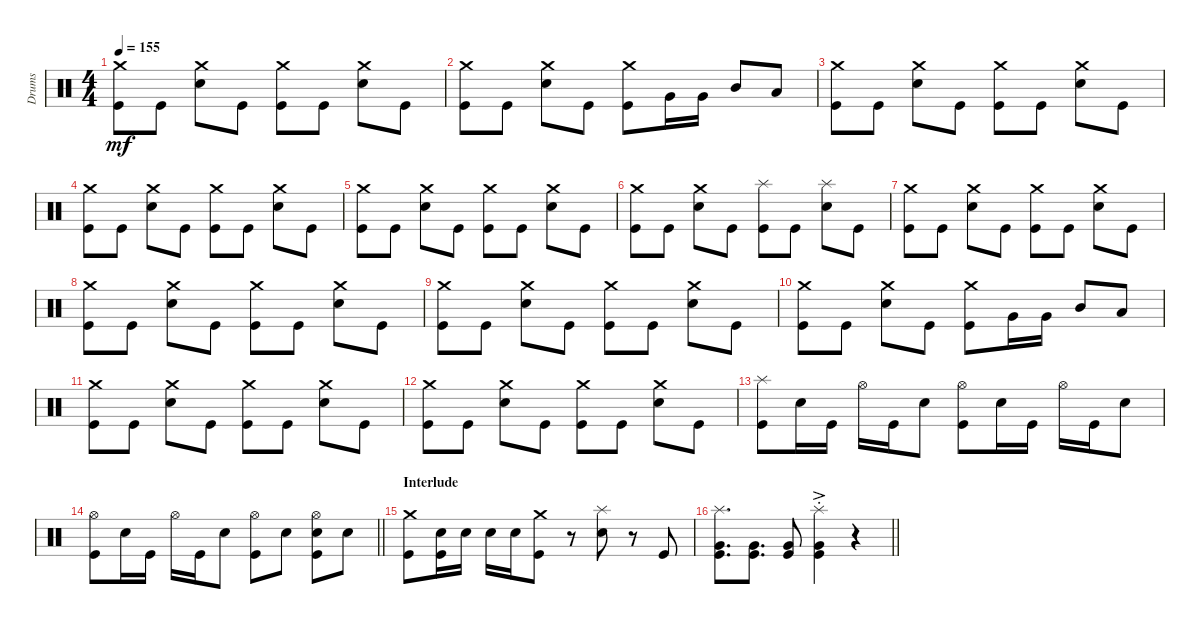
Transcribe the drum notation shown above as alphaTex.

\track ("Drums" "Drums") {instrument percussion}
\staff {score}
\articulation defaults
\ts (4 4)
\tempo 155
\clef neutral
\ks c
("Kick (hit)" "Crash medium (hit)").8{dy mf} "Kick (hit)".8 ("Snare (hit) 2" "Crash medium (hit)").8 "Kick (hit)".8 ("Kick (hit)" "Crash medium (hit)").8 "Kick (hit)".8 ("Snare (hit) 2" "Crash medium (hit)").8 "Kick (hit)".8 |
("Kick (hit)" "Crash medium (hit)").8 "Kick (hit)".8 ("Snare (hit) 2" "Crash medium (hit)").8 "Kick (hit)".8 ("Kick (hit)" "Crash medium (hit)").8 "Very Low Tom (hit)".16 "Very Low Tom (hit)".16 "Mid Tom (hit)".8 "Low Tom (hit)".8 |
("Kick (hit)" "Crash medium (hit)").8 "Kick (hit)".8 ("Snare (hit) 2" "Crash medium (hit)").8 "Kick (hit)".8 ("Kick (hit)" "Crash medium (hit)").8 "Kick (hit)".8 ("Snare (hit) 2" "Crash medium (hit)").8 "Kick (hit)".8 |
("Kick (hit)" "Crash medium (hit)").8 "Kick (hit)".8 ("Snare (hit) 2" "Crash medium (hit)").8 "Kick (hit)".8 ("Kick (hit)" "Crash medium (hit)").8 "Kick (hit)".8 ("Snare (hit) 2" "Crash medium (hit)").8 "Kick (hit)".8 |
("Kick (hit)" "Crash medium (hit)").8 "Kick (hit)".8 ("Snare (hit) 2" "Crash medium (hit)").8 "Kick (hit)".8 ("Kick (hit)" "Crash medium (hit)").8 "Kick (hit)".8 ("Snare (hit) 2" "Crash medium (hit)").8 "Kick (hit)".8 |
("Kick (hit)" "Crash medium (hit)").8 "Kick (hit)".8 ("Snare (hit) 2" "Crash medium (hit)").8 "Kick (hit)".8 ("Kick (hit)" "Splash (hit)").8 "Kick (hit)".8 ("Snare (hit) 2" "Splash (hit)").8 "Kick (hit)".8 |
("Kick (hit)" "Crash medium (hit)").8 "Kick (hit)".8 ("Snare (hit) 2" "Crash medium (hit)").8 "Kick (hit)".8 ("Kick (hit)" "Crash medium (hit)").8 "Kick (hit)".8 ("Snare (hit) 2" "Crash medium (hit)").8 "Kick (hit)".8 |
("Kick (hit)" "Crash medium (hit)").8 "Kick (hit)".8 ("Snare (hit) 2" "Crash medium (hit)").8 "Kick (hit)".8 ("Kick (hit)" "Crash medium (hit)").8 "Kick (hit)".8 ("Snare (hit) 2" "Crash medium (hit)").8 "Kick (hit)".8 |
("Kick (hit)" "Crash medium (hit)").8 "Kick (hit)".8 ("Snare (hit) 2" "Crash medium (hit)").8 "Kick (hit)".8 ("Kick (hit)" "Crash medium (hit)").8 "Kick (hit)".8 ("Snare (hit) 2" "Crash medium (hit)").8 "Kick (hit)".8 |
("Kick (hit)" "Crash medium (hit)").8 "Kick (hit)".8 ("Snare (hit) 2" "Crash medium (hit)").8 "Kick (hit)".8 ("Kick (hit)" "Crash medium (hit)").8 "Very Low Tom (hit)".16 "Very Low Tom (hit)".16 "Mid Tom (hit)".8 "Low Tom (hit)".8 |
("Kick (hit)" "Crash medium (hit)").8 "Kick (hit)".8 ("Snare (hit) 2" "Crash medium (hit)").8 "Kick (hit)".8 ("Kick (hit)" "Crash medium (hit)").8 "Kick (hit)".8 ("Snare (hit) 2" "Crash medium (hit)").8 "Kick (hit)".8 |
("Kick (hit)" "Crash medium (hit)").8 "Kick (hit)".8 ("Snare (hit) 2" "Crash medium (hit)").8 "Kick (hit)".8 ("Kick (hit)" "Crash medium (hit)").8 "Kick (hit)".8 ("Snare (hit) 2" "Crash medium (hit)").8 "Kick (hit)".8 |
("Kick (hit)" "Splash (hit)").8 "Snare (hit) 2".16 "Kick (hit)".16 "Hi-Hat (open)".16 "Kick (hit)".16 "Snare (hit) 2".8 ("Kick (hit)" "Hi-Hat (open)").8 "Snare (hit) 2".16 "Kick (hit)".16 "Hi-Hat (open)".16 "Kick (hit)".16 "Snare (hit) 2".8 |
\barLineRight lightlight
("Kick (hit)" "Hi-Hat (open)").8 "Snare (hit) 2".16 "Kick (hit)".16 "Hi-Hat (open)".16 "Kick (hit)".16 "Snare (hit) 2".8 ("Kick (hit)" "Hi-Hat (open)").8 "Snare (hit) 2".8 ("Snare (hit) 2" "Kick (hit)" "Hi-Hat (open)").8 "Snare (hit) 2".8 |
\section ("" "Interlude")
("Kick (hit)" "Crash medium (hit)").8 ("Kick (hit)" "Snare (hit) 2").16 "Snare (hit) 2".16 "Snare (hit) 2".16 "Snare (hit) 2".16 ("Kick (hit)" "Crash medium (hit)").8 r.8 ("Snare (hit) 2" "Splash (hit)").8 r.8 "Kick (hit)".8 |
\barLineRight lightlight
("Very Low Tom (hit)" "Kick (hit)" "Splash (hit)").8{d} ("Very Low Tom (hit)" "Kick (hit)").8{d} ("Very Low Tom (hit)" "Kick (hit)").8 ("Very Low Tom (hit)"{ac st} "Kick (hit)"{ac st} "Splash (hit)"{ac st}).4 r.4
